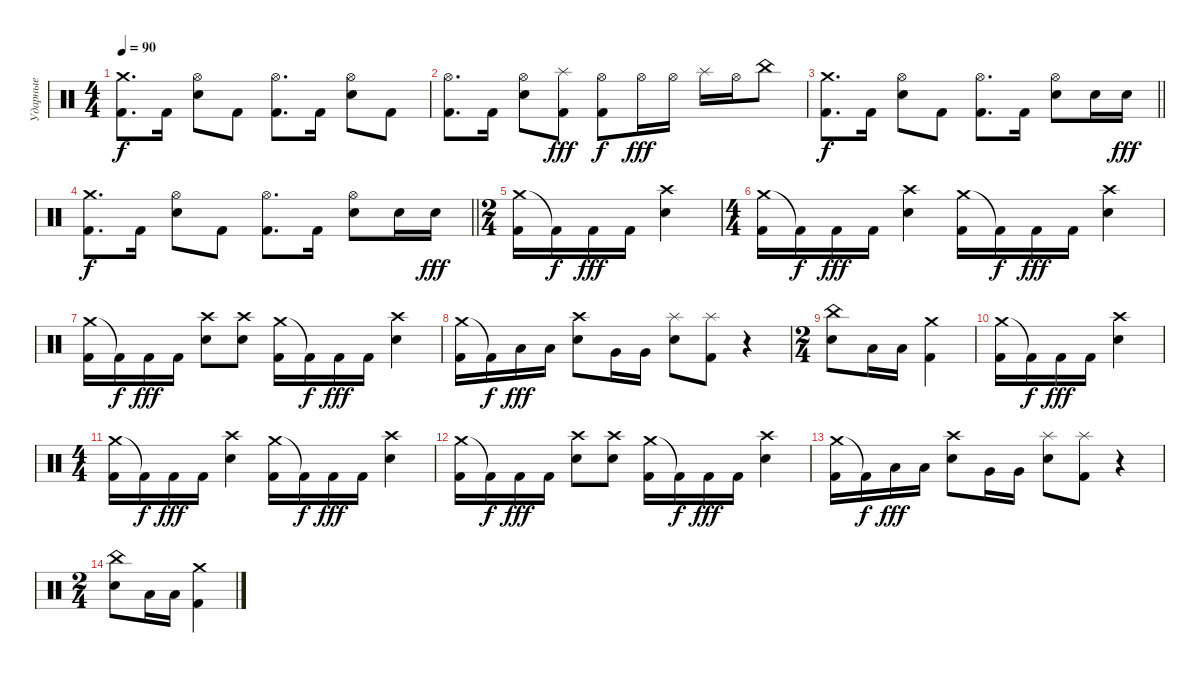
\track ("Ударные" "Ударные") {instrument percussion}
\staff {score}
\articulation defaults
\ts (4 4)
\tempo 90
\clef neutral
\ks c
("Crash medium (hit)" "Kick (hit) 2").8{d dy f} "Kick (hit) 2".16 ("Hi-Hat (open)" "Snare (hit) 2").8 "Kick (hit) 2".8 ("Hi-Hat (open)" "Kick (hit) 2").8{d} "Kick (hit) 2".16 ("Hi-Hat (open)" "Snare (hit) 2").8 "Kick (hit) 2".8 |
("Hi-Hat (open)" "Kick (hit) 2").8{d} "Kick (hit) 2".16 ("Hi-Hat (open)" "Snare (hit) 2").8 ("Splash (hit)" "Kick (hit) 2").8{dy fff} ("Hi-Hat (open)" "Kick (hit) 2").8{dy f} "Hi-Hat (open)".16{dy fff} "Hi-Hat (open)".16 "Splash (hit)".16 "Hi-Hat (open)".16 "China (hit)".8 |
\barLineRight lightlight
("Crash medium (hit)" "Kick (hit) 2").8{d dy f} "Kick (hit) 2".16 ("Hi-Hat (open)" "Snare (hit) 2").8 "Kick (hit) 2".8 ("Hi-Hat (open)" "Kick (hit) 2").8{d} "Kick (hit) 2".16 ("Hi-Hat (open)" "Snare (hit) 2").8 "Snare (hit) 2".16 "Snare (hit) 2".16{dy fff} |
\barLineRight lightlight
("Crash medium (hit)" "Kick (hit) 2").8{d dy f} "Kick (hit) 2".16 ("Hi-Hat (open)" "Snare (hit) 2").8 "Kick (hit) 2".8 ("Hi-Hat (open)" "Kick (hit) 2").8{d} "Kick (hit) 2".16 ("Hi-Hat (open)" "Snare (hit) 2").8 "Snare (hit) 2".16 "Snare (hit) 2".16{dy fff} |
\ts (2 4)
("Crash medium (hit)" "Kick (hit) 2").16 "Kick (hit) 2"{t}.16{dy f} "Kick (hit) 2".16{dy fff} "Kick (hit) 2".16 ("Crash high (hit)" "Snare (hit) 2").4 |
\ts (4 4)
("Crash medium (hit)" "Kick (hit) 2").16 "Kick (hit) 2"{t}.16{dy f} "Kick (hit) 2".16{dy fff} "Kick (hit) 2".16 ("Crash high (hit)" "Snare (hit) 2").4 ("Crash medium (hit)" "Kick (hit) 2").16 "Kick (hit) 2"{t}.16{dy f} "Kick (hit) 2".16{dy fff} "Kick (hit) 2".16 ("Crash high (hit)" "Snare (hit) 2").4 |
("Crash medium (hit)" "Kick (hit) 2").16 "Kick (hit) 2"{t}.16{dy f} "Kick (hit) 2".16{dy fff} "Kick (hit) 2".16 ("Crash high (hit)" "Snare (hit) 2").8 ("Crash high (hit)" "Snare (hit) 2").8 ("Crash medium (hit)" "Kick (hit) 2").16 "Kick (hit) 2"{t}.16{dy f} "Kick (hit) 2".16{dy fff} "Kick (hit) 2".16 ("Crash high (hit)" "Snare (hit) 2").4 |
("Crash medium (hit)" "Kick (hit) 2").16 "Kick (hit) 2"{t}.16{dy f} "Low Tom (hit)".16{dy fff} "Low Tom (hit)".16 ("Crash high (hit)" "Snare (hit) 2").8 "Very Low Tom (hit)".16 "Very Low Tom (hit)".16 ("Splash (hit)" "Snare (hit) 2").8 ("Splash (hit)" "Kick (hit) 2").8 r.4 |
\ts (2 4)
("China (hit)" "Snare (hit) 2").8 "Low Tom (hit)".16 "Low Tom (hit)".16 ("Crash medium (hit)" "Kick (hit) 2").4 |
("Crash medium (hit)" "Kick (hit) 2").16 "Kick (hit) 2"{t}.16{dy f} "Kick (hit) 2".16{dy fff} "Kick (hit) 2".16 ("Crash high (hit)" "Snare (hit) 2").4 |
\ts (4 4)
("Crash medium (hit)" "Kick (hit) 2").16 "Kick (hit) 2"{t}.16{dy f} "Kick (hit) 2".16{dy fff} "Kick (hit) 2".16 ("Crash high (hit)" "Snare (hit) 2").4 ("Crash medium (hit)" "Kick (hit) 2").16 "Kick (hit) 2"{t}.16{dy f} "Kick (hit) 2".16{dy fff} "Kick (hit) 2".16 ("Crash high (hit)" "Snare (hit) 2").4 |
("Crash medium (hit)" "Kick (hit) 2").16 "Kick (hit) 2"{t}.16{dy f} "Kick (hit) 2".16{dy fff} "Kick (hit) 2".16 ("Crash high (hit)" "Snare (hit) 2").8 ("Crash high (hit)" "Snare (hit) 2").8 ("Crash medium (hit)" "Kick (hit) 2").16 "Kick (hit) 2"{t}.16{dy f} "Kick (hit) 2".16{dy fff} "Kick (hit) 2".16 ("Crash high (hit)" "Snare (hit) 2").4 |
("Crash medium (hit)" "Kick (hit) 2").16 "Kick (hit) 2"{t}.16{dy f} "Low Tom (hit)".16{dy fff} "Low Tom (hit)".16 ("Crash high (hit)" "Snare (hit) 2").8 "Very Low Tom (hit)".16 "Very Low Tom (hit)".16 ("Splash (hit)" "Snare (hit) 2").8 ("Splash (hit)" "Kick (hit) 2").8 r.4 |
\ts (2 4)
("China (hit)" "Snare (hit) 2").8 "Low Tom (hit)".16 "Low Tom (hit)".16 ("Crash medium (hit)" "Kick (hit) 2").4
